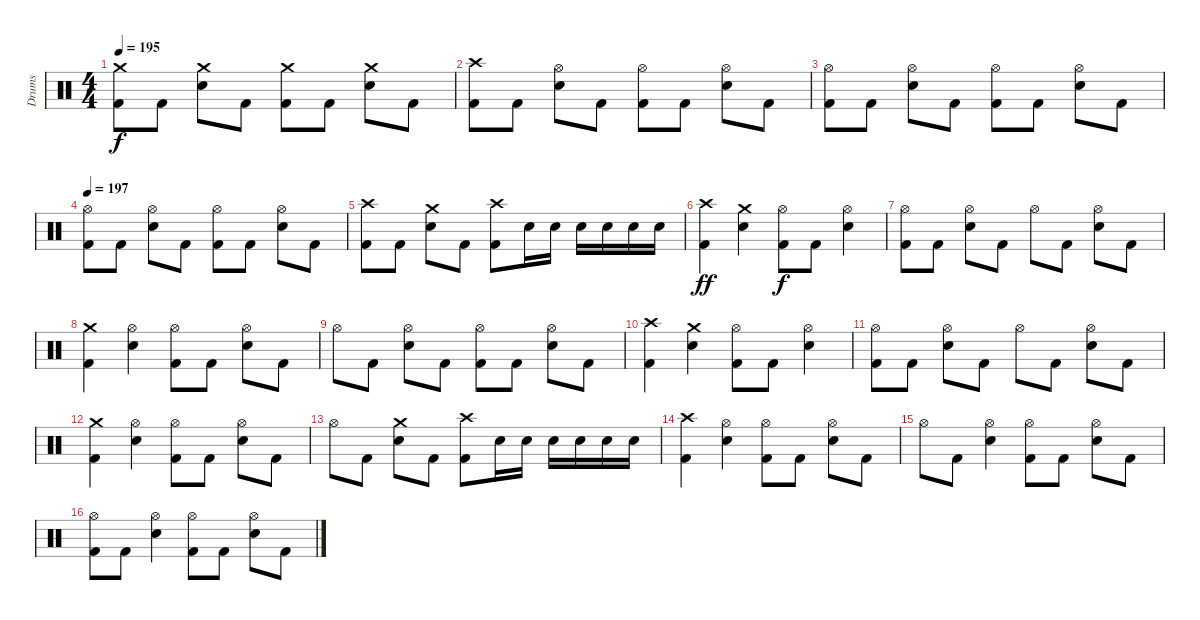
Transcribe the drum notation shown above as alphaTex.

\track ("Drums" "Drums") {instrument percussion}
\staff {score}
\articulation defaults
\ts (4 4)
\tempo 195
\clef neutral
\ks c
("Crash medium (hit)" "Kick (hit) 2").8{dy f} "Kick (hit) 2".8 ("Crash medium (hit)" "Electric Snare (hit)").8 "Kick (hit) 2".8 ("Crash medium (hit)" "Kick (hit) 2").8 "Kick (hit) 2".8 ("Crash medium (hit)" "Electric Snare (hit)").8 "Kick (hit) 2".8 |
("Crash high (hit)" "Kick (hit) 2").8 "Kick (hit) 2".8 ("Hi-Hat (open)" "Electric Snare (hit)").8 "Kick (hit) 2".8 ("Hi-Hat (open)" "Kick (hit) 2").8 "Kick (hit) 2".8 ("Hi-Hat (open)" "Electric Snare (hit)").8 "Kick (hit) 2".8 |
("Hi-Hat (open)" "Kick (hit) 2").8 "Kick (hit) 2".8 ("Hi-Hat (open)" "Electric Snare (hit)").8 "Kick (hit) 2".8 ("Hi-Hat (open)" "Kick (hit) 2").8 "Kick (hit) 2".8 ("Hi-Hat (open)" "Electric Snare (hit)").8 "Kick (hit) 2".8 |
\tempo 197
("Hi-Hat (open)" "Kick (hit) 2").8 "Kick (hit) 2".8 ("Hi-Hat (open)" "Electric Snare (hit)").8 "Kick (hit) 2".8 ("Hi-Hat (open)" "Kick (hit) 2").8 "Kick (hit) 2".8 ("Hi-Hat (open)" "Electric Snare (hit)").8 "Kick (hit) 2".8 |
("Crash high (hit)" "Kick (hit) 2").8 "Kick (hit) 2".8 ("Crash medium (hit)" "Electric Snare (hit)").8 "Kick (hit) 2".8 ("Crash high (hit)" "Kick (hit) 2").8 "Electric Snare (hit)".16 "Electric Snare (hit)".16 "Electric Snare (hit)".16 "Electric Snare (hit)".16 "Electric Snare (hit)".16 "Electric Snare (hit)".16 |
("Crash high (hit)" "Kick (hit) 2").4{dy ff} ("Crash medium (hit)" "Electric Snare (hit)").4 ("Hi-Hat (open)" "Kick (hit) 2").8{dy f} "Kick (hit) 2".8 ("Hi-Hat (open)" "Electric Snare (hit)").4 |
("Hi-Hat (open)" "Kick (hit) 2").8 "Kick (hit) 2".8 ("Hi-Hat (open)" "Electric Snare (hit)").8 "Kick (hit) 2".8 "Hi-Hat (open)".8 "Kick (hit) 2".8 ("Hi-Hat (open)" "Electric Snare (hit)").8 "Kick (hit) 2".8 |
("Crash medium (hit)" "Kick (hit) 2").4 ("Hi-Hat (open)" "Electric Snare (hit)").4 ("Hi-Hat (open)" "Kick (hit) 2").8 "Kick (hit) 2".8 ("Hi-Hat (open)" "Electric Snare (hit)").8 "Kick (hit) 2".8 |
"Hi-Hat (open)".8 "Kick (hit) 2".8 ("Hi-Hat (open)" "Electric Snare (hit)").8 "Kick (hit) 2".8 ("Hi-Hat (open)" "Kick (hit) 2").8 "Kick (hit) 2".8 ("Hi-Hat (open)" "Electric Snare (hit)").8 "Kick (hit) 2".8 |
("Crash high (hit)" "Kick (hit) 2").4 ("Crash medium (hit)" "Electric Snare (hit)").4 ("Hi-Hat (open)" "Kick (hit) 2").8 "Kick (hit) 2".8 ("Hi-Hat (open)" "Electric Snare (hit)").4 |
("Hi-Hat (open)" "Kick (hit) 2").8 "Kick (hit) 2".8 ("Hi-Hat (open)" "Electric Snare (hit)").8 "Kick (hit) 2".8 "Hi-Hat (open)".8 "Kick (hit) 2".8 ("Hi-Hat (open)" "Electric Snare (hit)").8 "Kick (hit) 2".8 |
("Crash medium (hit)" "Kick (hit) 2").4 ("Hi-Hat (open)" "Electric Snare (hit)").4 ("Hi-Hat (open)" "Kick (hit) 2").8 "Kick (hit) 2".8 ("Hi-Hat (open)" "Electric Snare (hit)").8 "Kick (hit) 2".8 |
"Hi-Hat (open)".8 "Kick (hit) 2".8 ("Crash medium (hit)" "Electric Snare (hit)").8 "Kick (hit) 2".8 ("Crash high (hit)" "Kick (hit) 2").8 "Electric Snare (hit)".16 "Electric Snare (hit)".16 "Electric Snare (hit)".16 "Electric Snare (hit)".16 "Electric Snare (hit)".16 "Electric Snare (hit)".16 |
("Crash high (hit)" "Kick (hit) 2").4 ("Hi-Hat (open)" "Electric Snare (hit)").4 ("Hi-Hat (open)" "Kick (hit) 2").8 "Kick (hit) 2".8 ("Hi-Hat (open)" "Electric Snare (hit)").8 "Kick (hit) 2".8 |
"Hi-Hat (open)".8 "Kick (hit) 2".8 ("Hi-Hat (open)" "Electric Snare (hit)").4 ("Hi-Hat (open)" "Kick (hit) 2").8 "Kick (hit) 2".8 ("Hi-Hat (open)" "Electric Snare (hit)").8 "Kick (hit) 2".8 |
("Hi-Hat (open)" "Kick (hit) 2").8 "Kick (hit) 2".8 ("Hi-Hat (open)" "Electric Snare (hit)").4 ("Hi-Hat (open)" "Kick (hit) 2").8 "Kick (hit) 2".8 ("Hi-Hat (open)" "Electric Snare (hit)").8 "Kick (hit) 2".8
